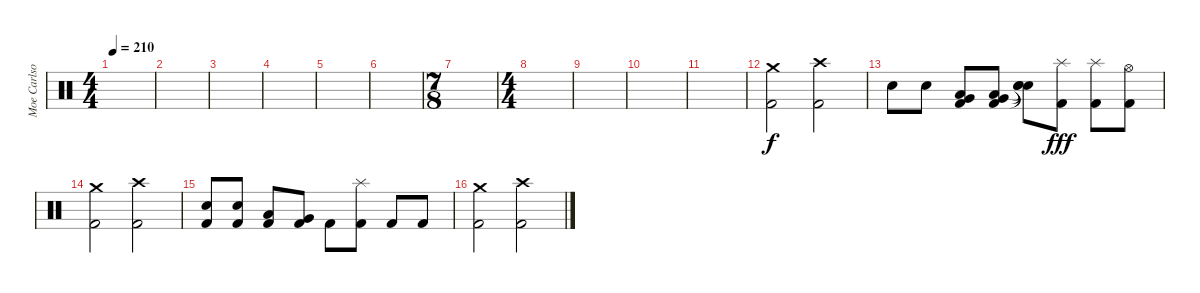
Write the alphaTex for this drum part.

\track ("Moe Carlson" "Moe Carlso") {instrument percussion}
\staff {score}
\articulation defaults
\ts (4 4)
\tempo 210
\clef neutral
\ks c
|
|
|
|
|
|
\ts (7 8)
|
\ts (4 4)
|
|
|
|
("Crash medium (hit)" "Kick (hit) 2").2 ("Crash high (hit)" "Kick (hit) 2").2 |
"Electric Snare (hit)".8 "Electric Snare (hit)".8 ("Low Tom (hit)" "Very Low Tom (hit)" "Kick (hit) 2").8 ("Low Tom (hit)" "Very Low Tom (hit)" "Kick (hit) 2").8 ("Snare (hit)"{t} "Snare (hit)"{t} "Snare (hit)"{t}).8{dy f} ("Splash (hit)" "Kick (hit) 2").8{dy fff} ("Splash (hit)" "Kick (hit) 2").8 ("Hi-Hat (open)" "Kick (hit) 2").8 |
("Crash medium (hit)" "Kick (hit) 2").2 ("Crash high (hit)" "Kick (hit) 2").2 |
("Electric Snare (hit)" "Kick (hit) 2").8 ("Electric Snare (hit)" "Kick (hit) 2").8 ("Low Tom (hit)" "Kick (hit) 2").8 ("Very Low Tom (hit)" "Kick (hit) 2").8 "Kick (hit) 2".8 ("Splash (hit)" "Kick (hit) 2").8 "Kick (hit) 2".8 "Kick (hit) 2".8 |
("Crash medium (hit)" "Kick (hit) 2").2 ("Crash high (hit)" "Kick (hit) 2").2
